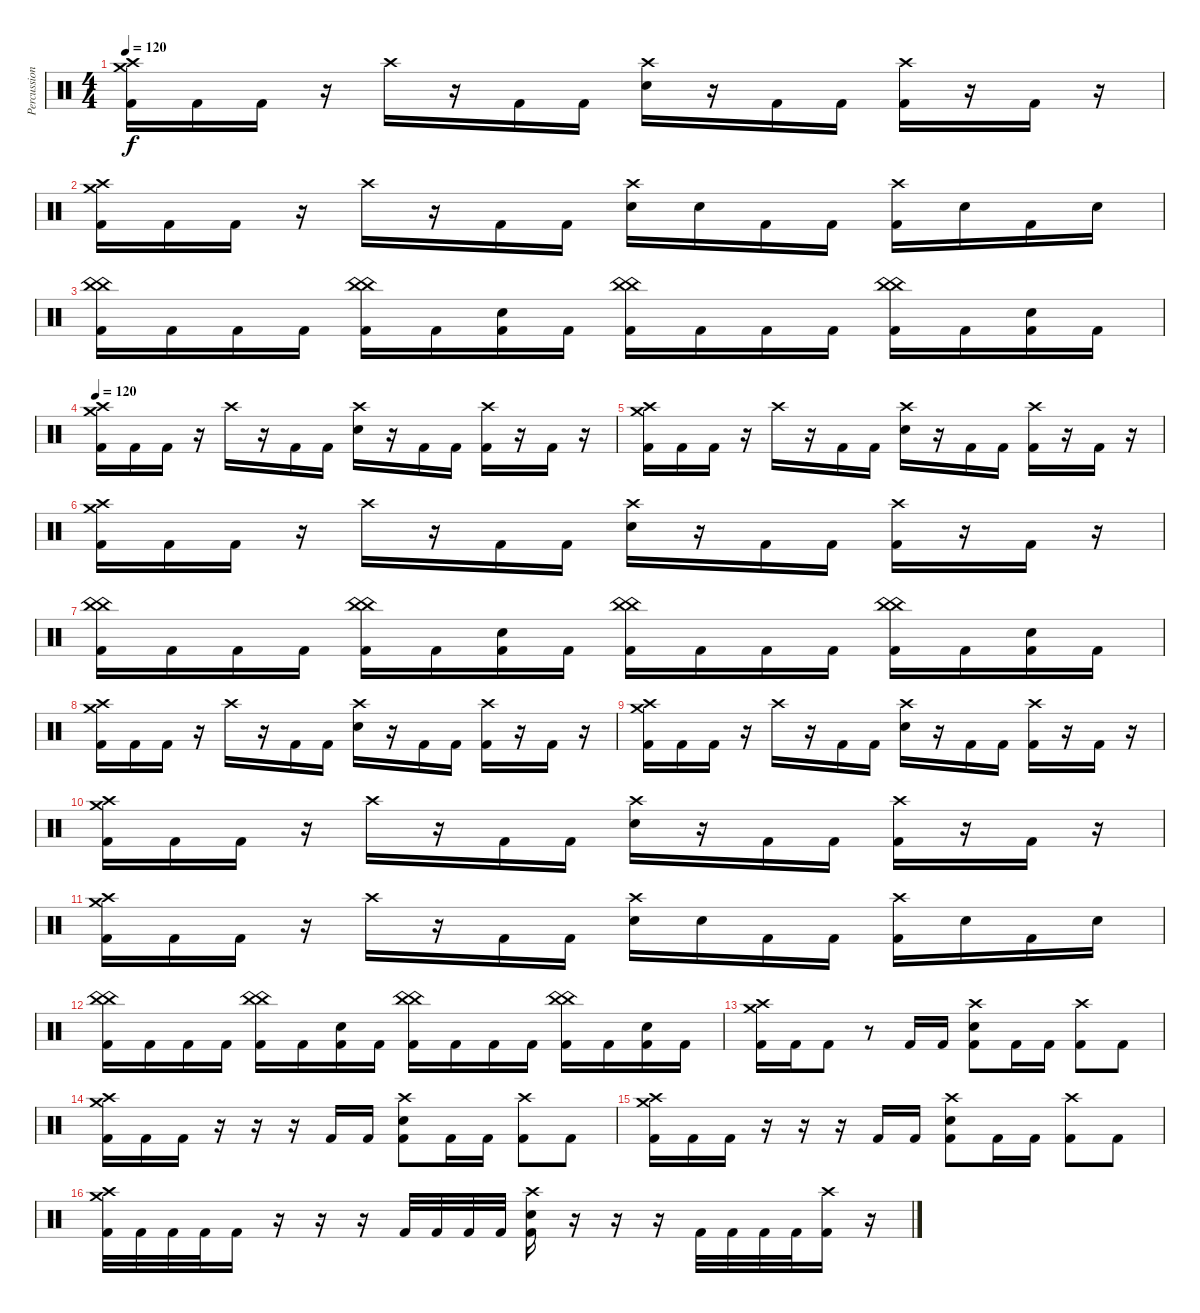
\track ("Percussion" "Percussion") {instrument percussion}
\staff {score}
\articulation defaults
\ts (4 4)
\tempo 120
\clef neutral
\ks c
("Crash medium (hit)" "Crash high (hit)" "Kick (hit) 2").16{dy f} "Kick (hit) 2".16 "Kick (hit) 2".16 r.16 "Crash high (hit)".16 r.16 "Kick (hit) 2".16 "Kick (hit) 2".16 ("Crash high (hit)" "Electric Snare (hit)").16 r.16 "Kick (hit) 2".16 "Kick (hit) 2".16 ("Crash high (hit)" "Kick (hit) 2").16 r.16 "Kick (hit) 2".16 r.16 |
("Crash medium (hit)" "Crash high (hit)" "Kick (hit) 2").16 "Kick (hit) 2".16 "Kick (hit) 2".16 r.16 "Crash high (hit)".16 r.16 "Kick (hit) 2".16 "Kick (hit) 2".16 ("Crash high (hit)" "Electric Snare (hit)").16 "Electric Snare (hit)".16 "Kick (hit) 2".16 "Kick (hit) 2".16 ("Crash high (hit)" "Kick (hit) 2").16 "Electric Snare (hit)".16 "Kick (hit) 2".16 "Electric Snare (hit)".16 |
("China (hit)" "China (hit)" "Kick (hit) 2").16 "Kick (hit) 2".16 "Kick (hit) 2".16 "Kick (hit) 2".16 ("China (hit)" "China (hit)" "Kick (hit) 2").16 "Kick (hit) 2".16 ("Electric Snare (hit)" "Kick (hit) 2").16 "Kick (hit) 2".16 ("China (hit)" "China (hit)" "Kick (hit) 2").16 "Kick (hit) 2".16 "Kick (hit) 2".16 "Kick (hit) 2".16 ("China (hit)" "China (hit)" "Kick (hit) 2").16 "Kick (hit) 2".16 ("Electric Snare (hit)" "Kick (hit) 2").16 "Kick (hit) 2".16 |
\tempo 120
("Crash medium (hit)" "Crash high (hit)" "Kick (hit) 2").16 "Kick (hit) 2".16 "Kick (hit) 2".16 r.16 "Crash high (hit)".16 r.16 "Kick (hit) 2".16 "Kick (hit) 2".16 ("Crash high (hit)" "Electric Snare (hit)").16 r.16 "Kick (hit) 2".16 "Kick (hit) 2".16 ("Crash high (hit)" "Kick (hit) 2").16 r.16 "Kick (hit) 2".16 r.16 |
("Crash medium (hit)" "Crash high (hit)" "Kick (hit) 2").16 "Kick (hit) 2".16 "Kick (hit) 2".16 r.16 "Crash high (hit)".16 r.16 "Kick (hit) 2".16 "Kick (hit) 2".16 ("Crash high (hit)" "Electric Snare (hit)").16 r.16 "Kick (hit) 2".16 "Kick (hit) 2".16 ("Crash high (hit)" "Kick (hit) 2").16 r.16 "Kick (hit) 2".16 r.16 |
("Crash medium (hit)" "Crash high (hit)" "Kick (hit) 2").16 "Kick (hit) 2".16 "Kick (hit) 2".16 r.16 "Crash high (hit)".16 r.16 "Kick (hit) 2".16 "Kick (hit) 2".16 ("Crash high (hit)" "Electric Snare (hit)").16 r.16 "Kick (hit) 2".16 "Kick (hit) 2".16 ("Crash high (hit)" "Kick (hit) 2").16 r.16 "Kick (hit) 2".16 r.16 |
("China (hit)" "China (hit)" "Kick (hit) 2").16 "Kick (hit) 2".16 "Kick (hit) 2".16 "Kick (hit) 2".16 ("China (hit)" "China (hit)" "Kick (hit) 2").16 "Kick (hit) 2".16 ("Electric Snare (hit)" "Kick (hit) 2").16 "Kick (hit) 2".16 ("China (hit)" "China (hit)" "Kick (hit) 2").16 "Kick (hit) 2".16 "Kick (hit) 2".16 "Kick (hit) 2".16 ("China (hit)" "China (hit)" "Kick (hit) 2").16 "Kick (hit) 2".16 ("Electric Snare (hit)" "Kick (hit) 2").16 "Kick (hit) 2".16 |
("Crash medium (hit)" "Crash high (hit)" "Kick (hit) 2").16 "Kick (hit) 2".16 "Kick (hit) 2".16 r.16 "Crash high (hit)".16 r.16 "Kick (hit) 2".16 "Kick (hit) 2".16 ("Crash high (hit)" "Electric Snare (hit)").16 r.16 "Kick (hit) 2".16 "Kick (hit) 2".16 ("Crash high (hit)" "Kick (hit) 2").16 r.16 "Kick (hit) 2".16 r.16 |
("Crash medium (hit)" "Crash high (hit)" "Kick (hit) 2").16 "Kick (hit) 2".16 "Kick (hit) 2".16 r.16 "Crash high (hit)".16 r.16 "Kick (hit) 2".16 "Kick (hit) 2".16 ("Crash high (hit)" "Electric Snare (hit)").16 r.16 "Kick (hit) 2".16 "Kick (hit) 2".16 ("Crash high (hit)" "Kick (hit) 2").16 r.16 "Kick (hit) 2".16 r.16 |
("Crash medium (hit)" "Crash high (hit)" "Kick (hit) 2").16 "Kick (hit) 2".16 "Kick (hit) 2".16 r.16 "Crash high (hit)".16 r.16 "Kick (hit) 2".16 "Kick (hit) 2".16 ("Crash high (hit)" "Electric Snare (hit)").16 r.16 "Kick (hit) 2".16 "Kick (hit) 2".16 ("Crash high (hit)" "Kick (hit) 2").16 r.16 "Kick (hit) 2".16 r.16 |
("Crash medium (hit)" "Crash high (hit)" "Kick (hit) 2").16 "Kick (hit) 2".16 "Kick (hit) 2".16 r.16 "Crash high (hit)".16 r.16 "Kick (hit) 2".16 "Kick (hit) 2".16 ("Crash high (hit)" "Electric Snare (hit)").16 "Electric Snare (hit)".16 "Kick (hit) 2".16 "Kick (hit) 2".16 ("Crash high (hit)" "Kick (hit) 2").16 "Electric Snare (hit)".16 "Kick (hit) 2".16 "Electric Snare (hit)".16 |
("China (hit)" "China (hit)" "Kick (hit) 2").16 "Kick (hit) 2".16 "Kick (hit) 2".16 "Kick (hit) 2".16 ("China (hit)" "China (hit)" "Kick (hit) 2").16 "Kick (hit) 2".16 ("Electric Snare (hit)" "Kick (hit) 2").16 "Kick (hit) 2".16 ("China (hit)" "China (hit)" "Kick (hit) 2").16 "Kick (hit) 2".16 "Kick (hit) 2".16 "Kick (hit) 2".16 ("China (hit)" "China (hit)" "Kick (hit) 2").16 "Kick (hit) 2".16 ("Electric Snare (hit)" "Kick (hit) 2").16 "Kick (hit) 2".16 |
("Crash medium (hit)" "Crash high (hit)" "Kick (hit) 2").16 "Kick (hit) 2".16 "Kick (hit) 2".8 r.8 "Kick (hit) 2".16 "Kick (hit) 2".16 ("Crash high (hit)" "Electric Snare (hit)" "Kick (hit) 2").8 "Kick (hit) 2".16 "Kick (hit) 2".16 ("Crash high (hit)" "Kick (hit) 2").8 "Kick (hit) 2".8 |
("Crash medium (hit)" "Crash high (hit)" "Kick (hit) 2").16 "Kick (hit) 2".16 "Kick (hit) 2".16 r.16 r.16 r.16 "Kick (hit) 2".16 "Kick (hit) 2".16 ("Crash high (hit)" "Electric Snare (hit)" "Kick (hit) 2").8 "Kick (hit) 2".16 "Kick (hit) 2".16 ("Crash high (hit)" "Kick (hit) 2").8 "Kick (hit) 2".8 |
("Crash medium (hit)" "Crash high (hit)" "Kick (hit) 2").16 "Kick (hit) 2".16 "Kick (hit) 2".16 r.16 r.16 r.16 "Kick (hit) 2".16 "Kick (hit) 2".16 ("Crash high (hit)" "Electric Snare (hit)" "Kick (hit) 2").8 "Kick (hit) 2".16 "Kick (hit) 2".16 ("Crash high (hit)" "Kick (hit) 2").8 "Kick (hit) 2".8 |
("Crash medium (hit)" "Crash high (hit)" "Kick (hit) 2").32 "Kick (hit) 2".32 "Kick (hit) 2".32 "Kick (hit) 2".32 "Kick (hit) 2".16 r.16 r.16 r.16 "Kick (hit) 2".32 "Kick (hit) 2".32 "Kick (hit) 2".32 "Kick (hit) 2".32 ("Crash high (hit)" "Electric Snare (hit)" "Kick (hit) 2").16 r.16 r.16 r.16 "Kick (hit) 2".32 "Kick (hit) 2".32 "Kick (hit) 2".32 "Kick (hit) 2".32 ("Crash high (hit)" "Kick (hit) 2").16 r.16
